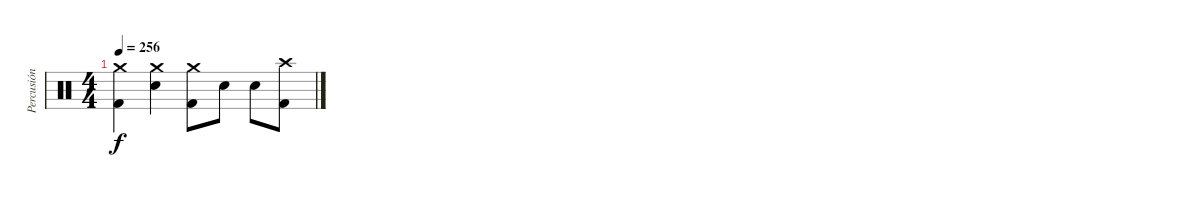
\track ("Percusión" "Percusión") {instrument percussion}
\staff {score}
\articulation defaults
\ts (4 4)
\tempo 256
\clef neutral
\ks c
("Kick (hit) 2" "Crash medium (hit)").4{dy f} ("Electric Snare (hit)" "Crash medium (hit)").4 ("Kick (hit) 2" "Crash medium (hit)").8 "Electric Snare (hit)".8 "Electric Snare (hit)".8 ("Kick (hit) 2" "Crash high (hit)").8
